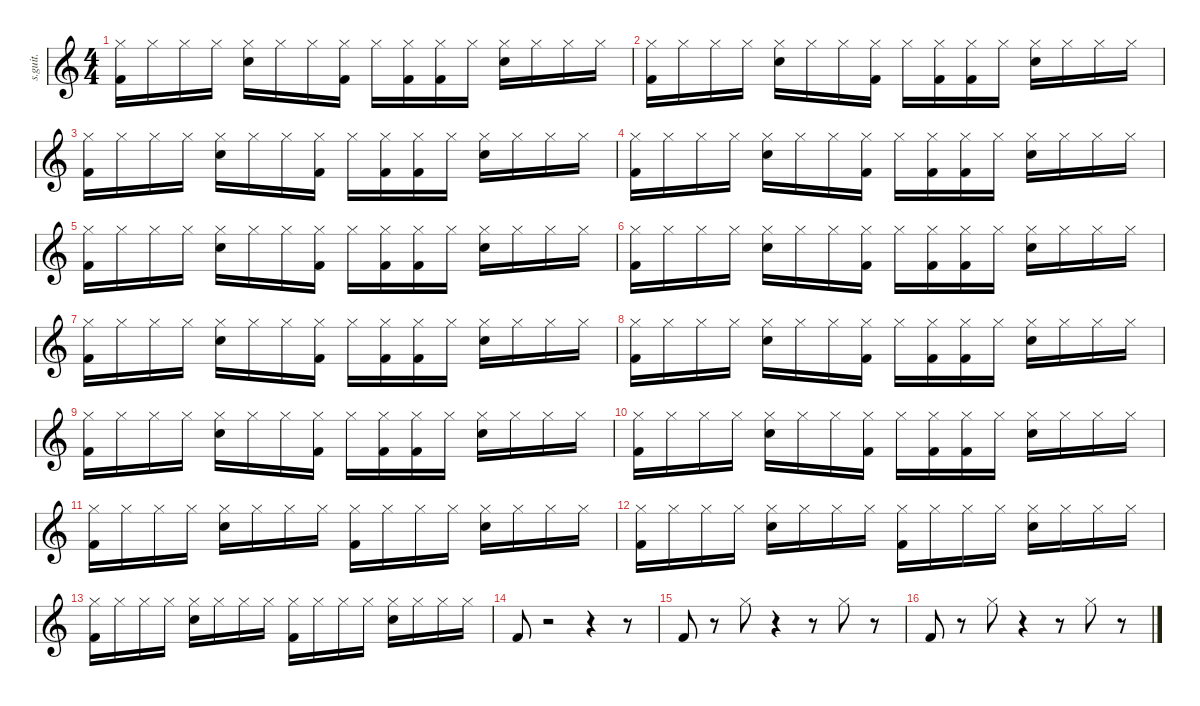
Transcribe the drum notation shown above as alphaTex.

\defaultSystemsLayout 4
\hideDynamics
\bracketExtendMode nobrackets
\track ("Drums" "s.guit.") {instrument percussion}
\staff {score}
\articulation defaults
\ts (4 4)
\tempo (100 hide)
\clef g2
\ks c
("Hi-Hat (closed)" "Kick (hit) 2").16{dy f} "Hi-Hat (closed)".16 "Hi-Hat (closed)".16 "Hi-Hat (closed)".16 ("Hi-Hat (closed)" "Electric Snare (hit)").16 "Hi-Hat (closed)".16 "Hi-Hat (closed)".16 ("Hi-Hat (closed)" "Kick (hit) 2").16 "Hi-Hat (closed)".16 ("Hi-Hat (closed)" "Kick (hit) 2").16 ("Hi-Hat (closed)" "Kick (hit) 2").16 "Hi-Hat (closed)".16 ("Hi-Hat (closed)" "Electric Snare (hit)").16 "Hi-Hat (closed)".16 "Hi-Hat (closed)".16 "Hi-Hat (closed)".16 |
("Hi-Hat (closed)" "Kick (hit) 2").16 "Hi-Hat (closed)".16 "Hi-Hat (closed)".16 "Hi-Hat (closed)".16 ("Hi-Hat (closed)" "Electric Snare (hit)").16 "Hi-Hat (closed)".16 "Hi-Hat (closed)".16 ("Hi-Hat (closed)" "Kick (hit) 2").16 "Hi-Hat (closed)".16 ("Hi-Hat (closed)" "Kick (hit) 2").16 ("Hi-Hat (closed)" "Kick (hit) 2").16 "Hi-Hat (closed)".16 ("Hi-Hat (closed)" "Electric Snare (hit)").16 "Hi-Hat (closed)".16 "Hi-Hat (closed)".16 "Hi-Hat (closed)".16 |
("Hi-Hat (closed)" "Kick (hit) 2").16 "Hi-Hat (closed)".16 "Hi-Hat (closed)".16 "Hi-Hat (closed)".16 ("Hi-Hat (closed)" "Electric Snare (hit)").16 "Hi-Hat (closed)".16 "Hi-Hat (closed)".16 ("Hi-Hat (closed)" "Kick (hit) 2").16 "Hi-Hat (closed)".16 ("Hi-Hat (closed)" "Kick (hit) 2").16 ("Hi-Hat (closed)" "Kick (hit) 2").16 "Hi-Hat (closed)".16 ("Hi-Hat (closed)" "Electric Snare (hit)").16 "Hi-Hat (closed)".16 "Hi-Hat (closed)".16 "Hi-Hat (closed)".16 |
("Hi-Hat (closed)" "Kick (hit) 2").16 "Hi-Hat (closed)".16 "Hi-Hat (closed)".16 "Hi-Hat (closed)".16 ("Hi-Hat (closed)" "Electric Snare (hit)").16 "Hi-Hat (closed)".16 "Hi-Hat (closed)".16 ("Hi-Hat (closed)" "Kick (hit) 2").16 "Hi-Hat (closed)".16 ("Hi-Hat (closed)" "Kick (hit) 2").16 ("Hi-Hat (closed)" "Kick (hit) 2").16 "Hi-Hat (closed)".16 ("Hi-Hat (closed)" "Electric Snare (hit)").16 "Hi-Hat (closed)".16 "Hi-Hat (closed)".16 "Hi-Hat (closed)".16 |
("Hi-Hat (closed)" "Kick (hit) 2").16 "Hi-Hat (closed)".16 "Hi-Hat (closed)".16 "Hi-Hat (closed)".16 ("Hi-Hat (closed)" "Electric Snare (hit)").16 "Hi-Hat (closed)".16 "Hi-Hat (closed)".16 ("Hi-Hat (closed)" "Kick (hit) 2").16 "Hi-Hat (closed)".16 ("Hi-Hat (closed)" "Kick (hit) 2").16 ("Hi-Hat (closed)" "Kick (hit) 2").16 "Hi-Hat (closed)".16 ("Hi-Hat (closed)" "Electric Snare (hit)").16 "Hi-Hat (closed)".16 "Hi-Hat (closed)".16 "Hi-Hat (closed)".16 |
("Hi-Hat (closed)" "Kick (hit) 2").16 "Hi-Hat (closed)".16 "Hi-Hat (closed)".16 "Hi-Hat (closed)".16 ("Hi-Hat (closed)" "Electric Snare (hit)").16 "Hi-Hat (closed)".16 "Hi-Hat (closed)".16 ("Hi-Hat (closed)" "Kick (hit) 2").16 "Hi-Hat (closed)".16 ("Hi-Hat (closed)" "Kick (hit) 2").16 ("Hi-Hat (closed)" "Kick (hit) 2").16 "Hi-Hat (closed)".16 ("Hi-Hat (closed)" "Electric Snare (hit)").16 "Hi-Hat (closed)".16 "Hi-Hat (closed)".16 "Hi-Hat (closed)".16 |
("Hi-Hat (closed)" "Kick (hit) 2").16 "Hi-Hat (closed)".16 "Hi-Hat (closed)".16 "Hi-Hat (closed)".16 ("Hi-Hat (closed)" "Electric Snare (hit)").16 "Hi-Hat (closed)".16 "Hi-Hat (closed)".16 ("Hi-Hat (closed)" "Kick (hit) 2").16 "Hi-Hat (closed)".16 ("Hi-Hat (closed)" "Kick (hit) 2").16 ("Hi-Hat (closed)" "Kick (hit) 2").16 "Hi-Hat (closed)".16 ("Hi-Hat (closed)" "Electric Snare (hit)").16 "Hi-Hat (closed)".16 "Hi-Hat (closed)".16 "Hi-Hat (closed)".16 |
("Hi-Hat (closed)" "Kick (hit) 2").16 "Hi-Hat (closed)".16 "Hi-Hat (closed)".16 "Hi-Hat (closed)".16 ("Hi-Hat (closed)" "Electric Snare (hit)").16 "Hi-Hat (closed)".16 "Hi-Hat (closed)".16 ("Hi-Hat (closed)" "Kick (hit) 2").16 "Hi-Hat (closed)".16 ("Hi-Hat (closed)" "Kick (hit) 2").16 ("Hi-Hat (closed)" "Kick (hit) 2").16 "Hi-Hat (closed)".16 ("Hi-Hat (closed)" "Electric Snare (hit)").16 "Hi-Hat (closed)".16 "Hi-Hat (closed)".16 "Hi-Hat (closed)".16 |
("Hi-Hat (closed)" "Kick (hit) 2").16 "Hi-Hat (closed)".16 "Hi-Hat (closed)".16 "Hi-Hat (closed)".16 ("Hi-Hat (closed)" "Electric Snare (hit)").16 "Hi-Hat (closed)".16 "Hi-Hat (closed)".16 ("Hi-Hat (closed)" "Kick (hit) 2").16 "Hi-Hat (closed)".16 ("Hi-Hat (closed)" "Kick (hit) 2").16 ("Hi-Hat (closed)" "Kick (hit) 2").16 "Hi-Hat (closed)".16 ("Hi-Hat (closed)" "Electric Snare (hit)").16 "Hi-Hat (closed)".16 "Hi-Hat (closed)".16 "Hi-Hat (closed)".16 |
("Hi-Hat (closed)" "Kick (hit) 2").16 "Hi-Hat (closed)".16 "Hi-Hat (closed)".16 "Hi-Hat (closed)".16 ("Hi-Hat (closed)" "Electric Snare (hit)").16 "Hi-Hat (closed)".16 "Hi-Hat (closed)".16 ("Hi-Hat (closed)" "Kick (hit) 2").16 "Hi-Hat (closed)".16 ("Hi-Hat (closed)" "Kick (hit) 2").16 ("Hi-Hat (closed)" "Kick (hit) 2").16 "Hi-Hat (closed)".16 ("Hi-Hat (closed)" "Electric Snare (hit)").16 "Hi-Hat (closed)".16 "Hi-Hat (closed)".16 "Hi-Hat (closed)".16 |
("Hi-Hat (closed)" "Kick (hit) 2").16 "Hi-Hat (closed)".16 "Hi-Hat (closed)".16 "Hi-Hat (closed)".16 ("Hi-Hat (closed)" "Electric Snare (hit)").16 "Hi-Hat (closed)".16 "Hi-Hat (closed)".16 "Hi-Hat (closed)".16 ("Kick (hit) 2" "Hi-Hat (closed)").16 "Hi-Hat (closed)".16 "Hi-Hat (closed)".16 "Hi-Hat (closed)".16 ("Hi-Hat (closed)" "Electric Snare (hit)").16 "Hi-Hat (closed)".16 "Hi-Hat (closed)".16 "Hi-Hat (closed)".16 |
("Hi-Hat (closed)" "Kick (hit) 2").16 "Hi-Hat (closed)".16 "Hi-Hat (closed)".16 "Hi-Hat (closed)".16 ("Hi-Hat (closed)" "Electric Snare (hit)").16 "Hi-Hat (closed)".16 "Hi-Hat (closed)".16 "Hi-Hat (closed)".16 ("Kick (hit) 2" "Hi-Hat (closed)").16 "Hi-Hat (closed)".16 "Hi-Hat (closed)".16 "Hi-Hat (closed)".16 ("Hi-Hat (closed)" "Electric Snare (hit)").16 "Hi-Hat (closed)".16 "Hi-Hat (closed)".16 "Hi-Hat (closed)".16 |
("Hi-Hat (closed)" "Kick (hit) 2").16 "Hi-Hat (closed)".16 "Hi-Hat (closed)".16 "Hi-Hat (closed)".16 ("Hi-Hat (closed)" "Electric Snare (hit)").16 "Hi-Hat (closed)".16 "Hi-Hat (closed)".16 "Hi-Hat (closed)".16 ("Kick (hit) 2" "Hi-Hat (closed)").16 "Hi-Hat (closed)".16 "Hi-Hat (closed)".16 "Hi-Hat (closed)".16 ("Hi-Hat (closed)" "Electric Snare (hit)").16 "Hi-Hat (closed)".16 "Hi-Hat (closed)".16 "Hi-Hat (closed)".16 |
"Kick (hit) 2".8 r.2 r.4 r.8 |
"Kick (hit) 2".8 r.8 "Hi-Hat (closed)".8 r.4 r.8 "Hi-Hat (closed)".8 r.8 |
"Kick (hit) 2".8 r.8 "Hi-Hat (closed)".8 r.4 r.8 "Hi-Hat (closed)".8 r.8
